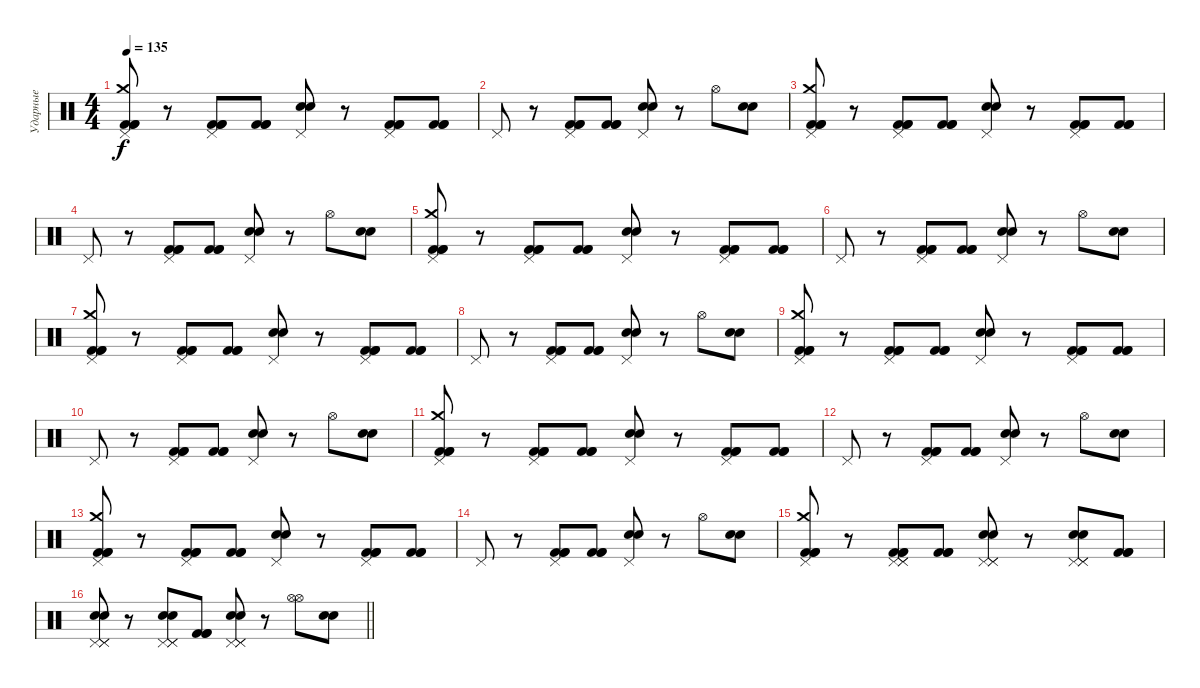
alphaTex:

\track ("Ударные" "Ударные") {instrument percussion}
\staff {score}
\articulation defaults
\ts (4 4)
\tempo 135
\clef neutral
\ks c
("Pedal Hi-Hat (hit)" "Crash medium (hit)" "Kick (hit) 2" "Kick (hit) 2" "Kick (hit) 2").8{dy f} r.8 ("Pedal Hi-Hat (hit)" "Kick (hit) 2" "Kick (hit) 2" "Kick (hit) 2").8 ("Kick (hit) 2" "Kick (hit) 2" "Kick (hit) 2").8 ("Pedal Hi-Hat (hit)" "Electric Snare (hit)" "Electric Snare (hit)").8 r.8 ("Pedal Hi-Hat (hit)" "Kick (hit) 2" "Kick (hit) 2" "Kick (hit) 2").8 ("Kick (hit) 2" "Kick (hit) 2" "Kick (hit) 2").8 |
"Pedal Hi-Hat (hit)".8 r.8 ("Pedal Hi-Hat (hit)" "Kick (hit) 2" "Kick (hit) 2" "Kick (hit) 2").8 ("Kick (hit) 2" "Kick (hit) 2" "Kick (hit) 2").8 ("Pedal Hi-Hat (hit)" "Electric Snare (hit)" "Electric Snare (hit)").8 r.8 "Hi-Hat (open)".8 ("Electric Snare (hit)" "Electric Snare (hit)").8 |
("Pedal Hi-Hat (hit)" "Crash medium (hit)" "Kick (hit) 2" "Kick (hit) 2" "Kick (hit) 2").8 r.8 ("Pedal Hi-Hat (hit)" "Kick (hit) 2" "Kick (hit) 2" "Kick (hit) 2").8 ("Kick (hit) 2" "Kick (hit) 2" "Kick (hit) 2").8 ("Pedal Hi-Hat (hit)" "Electric Snare (hit)" "Electric Snare (hit)").8 r.8 ("Pedal Hi-Hat (hit)" "Kick (hit) 2" "Kick (hit) 2" "Kick (hit) 2").8 ("Kick (hit) 2" "Kick (hit) 2" "Kick (hit) 2").8 |
"Pedal Hi-Hat (hit)".8 r.8 ("Pedal Hi-Hat (hit)" "Kick (hit) 2" "Kick (hit) 2" "Kick (hit) 2").8 ("Kick (hit) 2" "Kick (hit) 2" "Kick (hit) 2").8 ("Pedal Hi-Hat (hit)" "Electric Snare (hit)" "Electric Snare (hit)").8 r.8 "Hi-Hat (open)".8 ("Electric Snare (hit)" "Electric Snare (hit)").8 |
("Pedal Hi-Hat (hit)" "Crash medium (hit)" "Kick (hit) 2" "Kick (hit) 2" "Kick (hit) 2").8 r.8 ("Pedal Hi-Hat (hit)" "Kick (hit) 2" "Kick (hit) 2" "Kick (hit) 2").8 ("Kick (hit) 2" "Kick (hit) 2" "Kick (hit) 2").8 ("Pedal Hi-Hat (hit)" "Electric Snare (hit)" "Electric Snare (hit)").8 r.8 ("Pedal Hi-Hat (hit)" "Kick (hit) 2" "Kick (hit) 2" "Kick (hit) 2").8 ("Kick (hit) 2" "Kick (hit) 2" "Kick (hit) 2").8 |
"Pedal Hi-Hat (hit)".8 r.8 ("Pedal Hi-Hat (hit)" "Kick (hit) 2" "Kick (hit) 2" "Kick (hit) 2").8 ("Kick (hit) 2" "Kick (hit) 2" "Kick (hit) 2").8 ("Pedal Hi-Hat (hit)" "Electric Snare (hit)" "Electric Snare (hit)").8 r.8 "Hi-Hat (open)".8 ("Electric Snare (hit)" "Electric Snare (hit)").8 |
("Pedal Hi-Hat (hit)" "Crash medium (hit)" "Kick (hit) 2" "Kick (hit) 2" "Kick (hit) 2").8 r.8 ("Pedal Hi-Hat (hit)" "Kick (hit) 2" "Kick (hit) 2" "Kick (hit) 2").8 ("Kick (hit) 2" "Kick (hit) 2" "Kick (hit) 2").8 ("Pedal Hi-Hat (hit)" "Electric Snare (hit)" "Electric Snare (hit)").8 r.8 ("Pedal Hi-Hat (hit)" "Kick (hit) 2" "Kick (hit) 2" "Kick (hit) 2").8 ("Kick (hit) 2" "Kick (hit) 2" "Kick (hit) 2").8 |
"Pedal Hi-Hat (hit)".8 r.8 ("Pedal Hi-Hat (hit)" "Kick (hit) 2" "Kick (hit) 2" "Kick (hit) 2").8 ("Kick (hit) 2" "Kick (hit) 2" "Kick (hit) 2").8 ("Pedal Hi-Hat (hit)" "Electric Snare (hit)" "Electric Snare (hit)").8 r.8 "Hi-Hat (open)".8 ("Electric Snare (hit)" "Electric Snare (hit)").8 |
("Pedal Hi-Hat (hit)" "Crash medium (hit)" "Kick (hit) 2" "Kick (hit) 2" "Kick (hit) 2").8 r.8 ("Pedal Hi-Hat (hit)" "Kick (hit) 2" "Kick (hit) 2" "Kick (hit) 2").8 ("Kick (hit) 2" "Kick (hit) 2" "Kick (hit) 2").8 ("Pedal Hi-Hat (hit)" "Electric Snare (hit)" "Electric Snare (hit)").8 r.8 ("Pedal Hi-Hat (hit)" "Kick (hit) 2" "Kick (hit) 2" "Kick (hit) 2").8 ("Kick (hit) 2" "Kick (hit) 2" "Kick (hit) 2").8 |
"Pedal Hi-Hat (hit)".8 r.8 ("Pedal Hi-Hat (hit)" "Kick (hit) 2" "Kick (hit) 2" "Kick (hit) 2").8 ("Kick (hit) 2" "Kick (hit) 2" "Kick (hit) 2").8 ("Pedal Hi-Hat (hit)" "Electric Snare (hit)" "Electric Snare (hit)").8 r.8 "Hi-Hat (open)".8 ("Electric Snare (hit)" "Electric Snare (hit)").8 |
("Pedal Hi-Hat (hit)" "Crash medium (hit)" "Kick (hit) 2" "Kick (hit) 2" "Kick (hit) 2").8 r.8 ("Pedal Hi-Hat (hit)" "Kick (hit) 2" "Kick (hit) 2" "Kick (hit) 2").8 ("Kick (hit) 2" "Kick (hit) 2" "Kick (hit) 2").8 ("Pedal Hi-Hat (hit)" "Electric Snare (hit)" "Electric Snare (hit)").8 r.8 ("Pedal Hi-Hat (hit)" "Kick (hit) 2" "Kick (hit) 2" "Kick (hit) 2").8 ("Kick (hit) 2" "Kick (hit) 2" "Kick (hit) 2").8 |
"Pedal Hi-Hat (hit)".8 r.8 ("Pedal Hi-Hat (hit)" "Kick (hit) 2" "Kick (hit) 2" "Kick (hit) 2").8 ("Kick (hit) 2" "Kick (hit) 2" "Kick (hit) 2").8 ("Pedal Hi-Hat (hit)" "Electric Snare (hit)" "Electric Snare (hit)").8 r.8 "Hi-Hat (open)".8 ("Electric Snare (hit)" "Electric Snare (hit)").8 |
("Pedal Hi-Hat (hit)" "Crash medium (hit)" "Kick (hit) 2" "Kick (hit) 2" "Kick (hit) 2").8 r.8 ("Pedal Hi-Hat (hit)" "Kick (hit) 2" "Kick (hit) 2" "Kick (hit) 2").8 ("Kick (hit) 2" "Kick (hit) 2" "Kick (hit) 2").8 ("Pedal Hi-Hat (hit)" "Electric Snare (hit)" "Electric Snare (hit)").8 r.8 ("Pedal Hi-Hat (hit)" "Kick (hit) 2" "Kick (hit) 2" "Kick (hit) 2").8 ("Kick (hit) 2" "Kick (hit) 2" "Kick (hit) 2").8 |
"Pedal Hi-Hat (hit)".8 r.8 ("Pedal Hi-Hat (hit)" "Kick (hit) 2" "Kick (hit) 2" "Kick (hit) 2").8 ("Kick (hit) 2" "Kick (hit) 2" "Kick (hit) 2").8 ("Pedal Hi-Hat (hit)" "Electric Snare (hit)" "Electric Snare (hit)").8 r.8 "Hi-Hat (open)".8 ("Electric Snare (hit)" "Electric Snare (hit)").8 |
("Pedal Hi-Hat (hit)" "Crash medium (hit)" "Kick (hit) 2" "Kick (hit) 2" "Kick (hit) 2").8 r.8 ("Pedal Hi-Hat (hit)" "Pedal Hi-Hat (hit)" "Pedal Hi-Hat (hit)" "Kick (hit) 2" "Kick (hit) 2" "Kick (hit) 2").8 ("Kick (hit) 2" "Kick (hit) 2" "Kick (hit) 2").8 ("Pedal Hi-Hat (hit)" "Pedal Hi-Hat (hit)" "Pedal Hi-Hat (hit)" "Electric Snare (hit)" "Electric Snare (hit)").8 r.8 ("Pedal Hi-Hat (hit)" "Pedal Hi-Hat (hit)" "Pedal Hi-Hat (hit)" "Electric Snare (hit)" "Electric Snare (hit)").8 ("Kick (hit) 2" "Kick (hit) 2" "Kick (hit) 2").8 |
\barLineRight lightlight
("Pedal Hi-Hat (hit)" "Pedal Hi-Hat (hit)" "Pedal Hi-Hat (hit)" "Electric Snare (hit)" "Electric Snare (hit)").8 r.8 ("Pedal Hi-Hat (hit)" "Pedal Hi-Hat (hit)" "Pedal Hi-Hat (hit)" "Electric Snare (hit)" "Electric Snare (hit)").8 ("Kick (hit) 2" "Kick (hit) 2" "Kick (hit) 2").8 ("Pedal Hi-Hat (hit)" "Pedal Hi-Hat (hit)" "Pedal Hi-Hat (hit)" "Electric Snare (hit)" "Electric Snare (hit)").8 r.8 ("Hi-Hat (open)" "Hi-Hat (open)").8 ("Electric Snare (hit)" "Electric Snare (hit)").8
